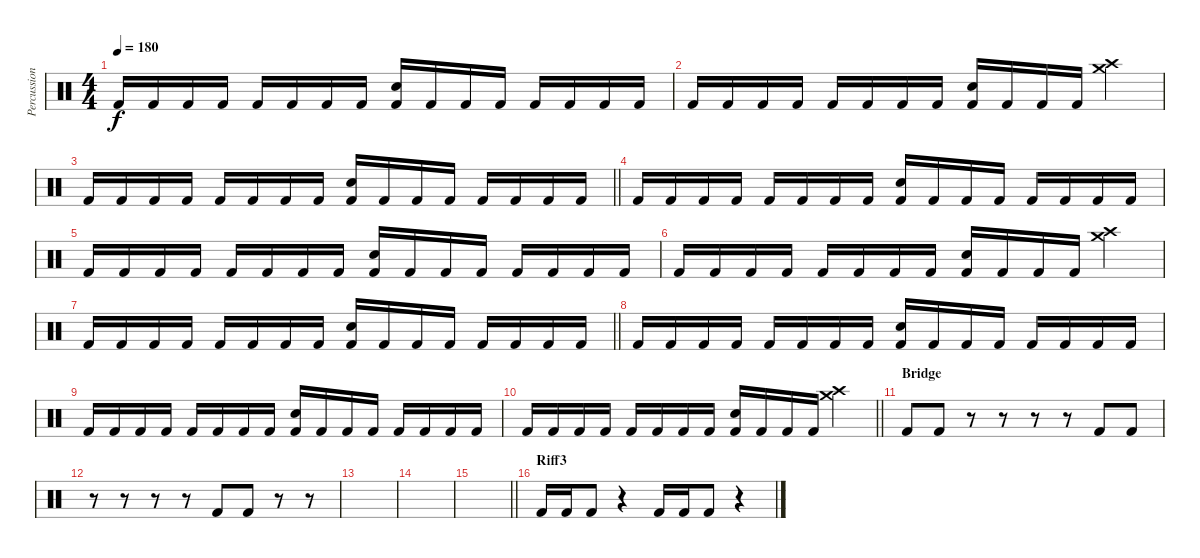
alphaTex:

\track ("Percussion" "Percussion") {instrument percussion}
\staff {score}
\articulation defaults
\ts (4 4)
\tempo 180
\clef neutral
\ks c "Kick (hit) 2".16{dy f} "Kick (hit) 2".16 "Kick (hit) 2".16 "Kick (hit) 2".16 "Kick (hit) 2".16 "Kick (hit) 2".16 "Kick (hit) 2".16 "Kick (hit) 2".16
("Kick (hit) 2" "Electric Snare (hit)").16 "Kick (hit) 2".16 "Kick (hit) 2".16 "Kick (hit) 2".16 "Kick (hit) 2".16 "Kick (hit) 2".16 "Kick (hit) 2".16 "Kick (hit) 2".16 |
"Kick (hit) 2".16 "Kick (hit) 2".16 "Kick (hit) 2".16 "Kick (hit) 2".16 "Kick (hit) 2".16 "Kick (hit) 2".16 "Kick (hit) 2".16 "Kick (hit) 2".16 ("Kick (hit) 2" "Electric Snare (hit)").16 "Kick (hit) 2".16 "Kick (hit) 2".16 "Kick (hit) 2".16 ("Crash high (hit)" "Crash medium (hit)").4 |
\barLineRight lightlight "Kick (hit) 2".16 "Kick (hit) 2".16 "Kick (hit) 2".16 "Kick (hit) 2".16 "Kick (hit) 2".16 "Kick (hit) 2".16 "Kick (hit) 2".16 "Kick (hit) 2".16
("Kick (hit) 2" "Electric Snare (hit)").16 "Kick (hit) 2".16 "Kick (hit) 2".16 "Kick (hit) 2".16 "Kick (hit) 2".16 "Kick (hit) 2".16 "Kick (hit) 2".16 "Kick (hit) 2".16 |
"Kick (hit) 2".16 "Kick (hit) 2".16 "Kick (hit) 2".16 "Kick (hit) 2".16 "Kick (hit) 2".16 "Kick (hit) 2".16 "Kick (hit) 2".16 "Kick (hit) 2".16 ("Kick (hit) 2" "Electric Snare (hit)").16 "Kick (hit) 2".16 "Kick (hit) 2".16 "Kick (hit) 2".16 "Kick (hit) 2".16 "Kick (hit) 2".16 "Kick (hit) 2".16 "Kick (hit) 2".16 |
"Kick (hit) 2".16 "Kick (hit) 2".16 "Kick (hit) 2".16 "Kick (hit) 2".16 "Kick (hit) 2".16 "Kick (hit) 2".16 "Kick (hit) 2".16 "Kick (hit) 2".16 ("Kick (hit) 2" "Electric Snare (hit)").16 "Kick (hit) 2".16 "Kick (hit) 2".16 "Kick (hit) 2".16 "Kick (hit) 2".16 "Kick (hit) 2".16 "Kick (hit) 2".16 "Kick (hit) 2".16 |
"Kick (hit) 2".16 "Kick (hit) 2".16 "Kick (hit) 2".16 "Kick (hit) 2".16 "Kick (hit) 2".16 "Kick (hit) 2".16 "Kick (hit) 2".16 "Kick (hit) 2".16 ("Kick (hit) 2" "Electric Snare (hit)").16 "Kick (hit) 2".16 "Kick (hit) 2".16 "Kick (hit) 2".16 ("Crash high (hit)" "Crash medium (hit)").4 |
\barLineRight lightlight "Kick (hit) 2".16 "Kick (hit) 2".16 "Kick (hit) 2".16 "Kick (hit) 2".16 "Kick (hit) 2".16 "Kick (hit) 2".16 "Kick (hit) 2".16 "Kick (hit) 2".16
("Kick (hit) 2" "Electric Snare (hit)").16 "Kick (hit) 2".16 "Kick (hit) 2".16 "Kick (hit) 2".16 "Kick (hit) 2".16 "Kick (hit) 2".16 "Kick (hit) 2".16 "Kick (hit) 2".16 |
"Kick (hit) 2".16 "Kick (hit) 2".16 "Kick (hit) 2".16 "Kick (hit) 2".16 "Kick (hit) 2".16 "Kick (hit) 2".16 "Kick (hit) 2".16 "Kick (hit) 2".16 ("Kick (hit) 2" "Electric Snare (hit)").16 "Kick (hit) 2".16 "Kick (hit) 2".16 "Kick (hit) 2".16 "Kick (hit) 2".16 "Kick (hit) 2".16 "Kick (hit) 2".16 "Kick (hit) 2".16 |
"Kick (hit) 2".16 "Kick (hit) 2".16 "Kick (hit) 2".16 "Kick (hit) 2".16 "Kick (hit) 2".16 "Kick (hit) 2".16 "Kick (hit) 2".16 "Kick (hit) 2".16 ("Kick (hit) 2" "Electric Snare (hit)").16 "Kick (hit) 2".16 "Kick (hit) 2".16 "Kick (hit) 2".16 "Kick (hit) 2".16 "Kick (hit) 2".16 "Kick (hit) 2".16 "Kick (hit) 2".16 |
\barLineRight lightlight "Kick (hit) 2".16 "Kick (hit) 2".16 "Kick (hit) 2".16 "Kick (hit) 2".16 "Kick (hit) 2".16 "Kick (hit) 2".16 "Kick (hit) 2".16 "Kick (hit) 2".16
("Kick (hit) 2" "Electric Snare (hit)").16 "Kick (hit) 2".16 "Kick (hit) 2".16 "Kick (hit) 2".16 ("Crash high (hit)" "Crash medium (hit)").4 |
\section ("" "Bridge")
"Kick (hit) 2".8 "Kick (hit) 2".8 r.8 r.8 r.8 r.8 "Kick (hit) 2".8 "Kick (hit) 2".8 |
r.8 r.8 r.8 r.8 "Kick (hit) 2".8 "Kick (hit) 2".8 r.8 r.8 |
|
|
\barLineRight lightlight
|
\section ("" "Riff3")
"Kick (hit) 2".16 "Kick (hit) 2".16 "Kick (hit) 2".8 r.4 "Kick (hit) 2".16 "Kick (hit) 2".16 "Kick (hit) 2".8 r.4
